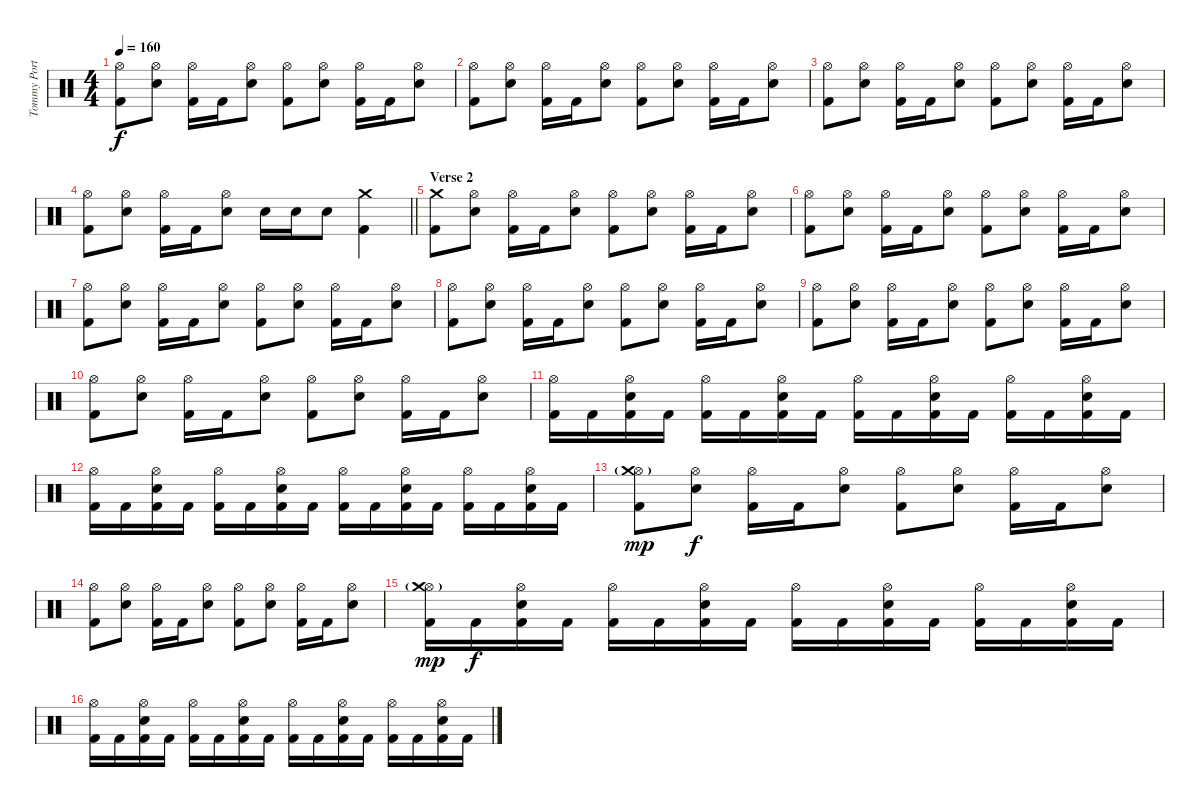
\track ("Tommy Portino" "Tommy Port") {instrument percussion}
\staff {score}
\articulation defaults
\ts (4 4)
\tempo 160
\clef neutral
\ks c
("Hi-Hat (open)" "Kick (hit) 2").8{dy f} ("Hi-Hat (open)" "Snare (hit) 2").8 ("Hi-Hat (open)" "Kick (hit) 2").16 "Kick (hit) 2".16 ("Hi-Hat (open)" "Snare (hit) 2").8 ("Hi-Hat (open)" "Kick (hit) 2").8 ("Hi-Hat (open)" "Snare (hit) 2").8 ("Hi-Hat (open)" "Kick (hit) 2").16 "Kick (hit) 2".16 ("Hi-Hat (open)" "Snare (hit) 2").8 |
("Hi-Hat (open)" "Kick (hit) 2").8 ("Hi-Hat (open)" "Snare (hit) 2").8 ("Hi-Hat (open)" "Kick (hit) 2").16 "Kick (hit) 2".16 ("Hi-Hat (open)" "Snare (hit) 2").8 ("Hi-Hat (open)" "Kick (hit) 2").8 ("Hi-Hat (open)" "Snare (hit) 2").8 ("Hi-Hat (open)" "Kick (hit) 2").16 "Kick (hit) 2".16 ("Hi-Hat (open)" "Snare (hit) 2").8 |
("Hi-Hat (open)" "Kick (hit) 2").8 ("Hi-Hat (open)" "Snare (hit) 2").8 ("Hi-Hat (open)" "Kick (hit) 2").16 "Kick (hit) 2".16 ("Hi-Hat (open)" "Snare (hit) 2").8 ("Hi-Hat (open)" "Kick (hit) 2").8 ("Hi-Hat (open)" "Snare (hit) 2").8 ("Hi-Hat (open)" "Kick (hit) 2").16 "Kick (hit) 2".16 ("Hi-Hat (open)" "Snare (hit) 2").8 |
\barLineRight lightlight
("Hi-Hat (open)" "Kick (hit) 2").8 ("Hi-Hat (open)" "Snare (hit) 2").8 ("Hi-Hat (open)" "Kick (hit) 2").16 "Kick (hit) 2".16 ("Hi-Hat (open)" "Snare (hit) 2").8 "Snare (hit) 2".16 "Snare (hit) 2".16 "Snare (hit) 2".8 ("Crash medium (hit)" "Kick (hit) 2").4 |
\section ("" "Verse 2")
("Crash medium (hit)" "Kick (hit) 2").8 ("Hi-Hat (open)" "Snare (hit) 2").8 ("Hi-Hat (open)" "Kick (hit) 2").16 "Kick (hit) 2".16 ("Hi-Hat (open)" "Snare (hit) 2").8 ("Hi-Hat (open)" "Kick (hit) 2").8 ("Hi-Hat (open)" "Snare (hit) 2").8 ("Hi-Hat (open)" "Kick (hit) 2").16 "Kick (hit) 2".16 ("Hi-Hat (open)" "Snare (hit) 2").8 |
("Hi-Hat (open)" "Kick (hit) 2").8 ("Hi-Hat (open)" "Snare (hit) 2").8 ("Hi-Hat (open)" "Kick (hit) 2").16 "Kick (hit) 2".16 ("Hi-Hat (open)" "Snare (hit) 2").8 ("Hi-Hat (open)" "Kick (hit) 2").8 ("Hi-Hat (open)" "Snare (hit) 2").8 ("Hi-Hat (open)" "Kick (hit) 2").16 "Kick (hit) 2".16 ("Hi-Hat (open)" "Snare (hit) 2").8 |
("Hi-Hat (open)" "Kick (hit) 2").8 ("Hi-Hat (open)" "Snare (hit) 2").8 ("Hi-Hat (open)" "Kick (hit) 2").16 "Kick (hit) 2".16 ("Hi-Hat (open)" "Snare (hit) 2").8 ("Hi-Hat (open)" "Kick (hit) 2").8 ("Hi-Hat (open)" "Snare (hit) 2").8 ("Hi-Hat (open)" "Kick (hit) 2").16 "Kick (hit) 2".16 ("Hi-Hat (open)" "Snare (hit) 2").8 |
("Hi-Hat (open)" "Kick (hit) 2").8 ("Hi-Hat (open)" "Snare (hit) 2").8 ("Hi-Hat (open)" "Kick (hit) 2").16 "Kick (hit) 2".16 ("Hi-Hat (open)" "Snare (hit) 2").8 ("Hi-Hat (open)" "Kick (hit) 2").8 ("Hi-Hat (open)" "Snare (hit) 2").8 ("Hi-Hat (open)" "Kick (hit) 2").16 "Kick (hit) 2".16 ("Hi-Hat (open)" "Snare (hit) 2").8 |
("Hi-Hat (open)" "Kick (hit) 2").8 ("Hi-Hat (open)" "Snare (hit) 2").8 ("Hi-Hat (open)" "Kick (hit) 2").16 "Kick (hit) 2".16 ("Hi-Hat (open)" "Snare (hit) 2").8 ("Hi-Hat (open)" "Kick (hit) 2").8 ("Hi-Hat (open)" "Snare (hit) 2").8 ("Hi-Hat (open)" "Kick (hit) 2").16 "Kick (hit) 2".16 ("Hi-Hat (open)" "Snare (hit) 2").8 |
("Hi-Hat (open)" "Kick (hit) 2").8 ("Hi-Hat (open)" "Snare (hit) 2").8 ("Hi-Hat (open)" "Kick (hit) 2").16 "Kick (hit) 2".16 ("Hi-Hat (open)" "Snare (hit) 2").8 ("Hi-Hat (open)" "Kick (hit) 2").8 ("Hi-Hat (open)" "Snare (hit) 2").8 ("Hi-Hat (open)" "Kick (hit) 2").16 "Kick (hit) 2".16 ("Hi-Hat (open)" "Snare (hit) 2").8 |
("Hi-Hat (open)" "Kick (hit) 2").16 "Kick (hit) 2".16 ("Hi-Hat (open)" "Snare (hit) 2" "Kick (hit) 2").16 "Kick (hit) 2".16 ("Hi-Hat (open)" "Kick (hit) 2").16 "Kick (hit) 2".16 ("Hi-Hat (open)" "Snare (hit) 2" "Kick (hit) 2").16 "Kick (hit) 2".16 ("Hi-Hat (open)" "Kick (hit) 2").16 "Kick (hit) 2".16 ("Hi-Hat (open)" "Snare (hit) 2" "Kick (hit) 2").16 "Kick (hit) 2".16 ("Hi-Hat (open)" "Kick (hit) 2").16 "Kick (hit) 2".16 ("Hi-Hat (open)" "Snare (hit) 2" "Kick (hit) 2").16 "Kick (hit) 2".16 |
("Hi-Hat (open)" "Kick (hit) 2").16 "Kick (hit) 2".16 ("Hi-Hat (open)" "Snare (hit) 2" "Kick (hit) 2").16 "Kick (hit) 2".16 ("Hi-Hat (open)" "Kick (hit) 2").16 "Kick (hit) 2".16 ("Hi-Hat (open)" "Snare (hit) 2" "Kick (hit) 2").16 "Kick (hit) 2".16 ("Hi-Hat (open)" "Kick (hit) 2").16 "Kick (hit) 2".16 ("Hi-Hat (open)" "Snare (hit) 2" "Kick (hit) 2").16 "Kick (hit) 2".16 ("Hi-Hat (open)" "Kick (hit) 2").16 "Kick (hit) 2".16 ("Hi-Hat (open)" "Snare (hit) 2" "Kick (hit) 2").16 "Kick (hit) 2".16 |
("Hi-Hat (open)"{g} "Crash medium (hit)" "Kick (hit) 2").8{dy mp} ("Hi-Hat (open)" "Snare (hit) 2").8{dy f} ("Hi-Hat (open)" "Kick (hit) 2").16 "Kick (hit) 2".16 ("Hi-Hat (open)" "Snare (hit) 2").8 ("Hi-Hat (open)" "Kick (hit) 2").8 ("Hi-Hat (open)" "Snare (hit) 2").8 ("Hi-Hat (open)" "Kick (hit) 2").16 "Kick (hit) 2".16 ("Hi-Hat (open)" "Snare (hit) 2").8 |
("Hi-Hat (open)" "Kick (hit) 2").8 ("Hi-Hat (open)" "Snare (hit) 2").8 ("Hi-Hat (open)" "Kick (hit) 2").16 "Kick (hit) 2".16 ("Hi-Hat (open)" "Snare (hit) 2").8 ("Hi-Hat (open)" "Kick (hit) 2").8 ("Hi-Hat (open)" "Snare (hit) 2").8 ("Hi-Hat (open)" "Kick (hit) 2").16 "Kick (hit) 2".16 ("Hi-Hat (open)" "Snare (hit) 2").8 |
("Hi-Hat (open)"{g} "Crash medium (hit)" "Kick (hit) 2").16{dy mp} "Kick (hit) 2".16{dy f} ("Hi-Hat (open)" "Snare (hit) 2" "Kick (hit) 2").16 "Kick (hit) 2".16 ("Hi-Hat (open)" "Kick (hit) 2").16 "Kick (hit) 2".16 ("Hi-Hat (open)" "Snare (hit) 2" "Kick (hit) 2").16 "Kick (hit) 2".16 ("Hi-Hat (open)" "Kick (hit) 2").16 "Kick (hit) 2".16 ("Hi-Hat (open)" "Snare (hit) 2" "Kick (hit) 2").16 "Kick (hit) 2".16 ("Hi-Hat (open)" "Kick (hit) 2").16 "Kick (hit) 2".16 ("Hi-Hat (open)" "Snare (hit) 2" "Kick (hit) 2").16 "Kick (hit) 2".16 |
("Hi-Hat (open)" "Kick (hit) 2").16 "Kick (hit) 2".16 ("Hi-Hat (open)" "Snare (hit) 2" "Kick (hit) 2").16 "Kick (hit) 2".16 ("Hi-Hat (open)" "Kick (hit) 2").16 "Kick (hit) 2".16 ("Hi-Hat (open)" "Snare (hit) 2" "Kick (hit) 2").16 "Kick (hit) 2".16 ("Hi-Hat (open)" "Kick (hit) 2").16 "Kick (hit) 2".16 ("Hi-Hat (open)" "Snare (hit) 2" "Kick (hit) 2").16 "Kick (hit) 2".16 ("Hi-Hat (open)" "Kick (hit) 2").16 "Kick (hit) 2".16 ("Hi-Hat (open)" "Snare (hit) 2" "Kick (hit) 2").16 "Kick (hit) 2".16
